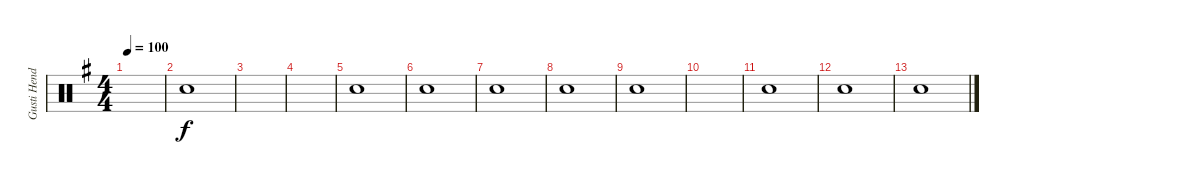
\track ("Gusti Hendy" "Gusti Hend") {instrument percussion}
\staff {score}
\articulation defaults
\ts (4 4)
\tempo 100
\clef neutral
\ks g
|
"Snare (hit)".1 |
|
|
"Snare (hit)".1 |
"Snare (hit)".1 |
"Snare (hit)".1 |
"Snare (hit)".1 |
"Snare (hit)".1 |
|
"Snare (hit)".1 |
"Snare (hit)".1 |
"Snare (hit)".1
